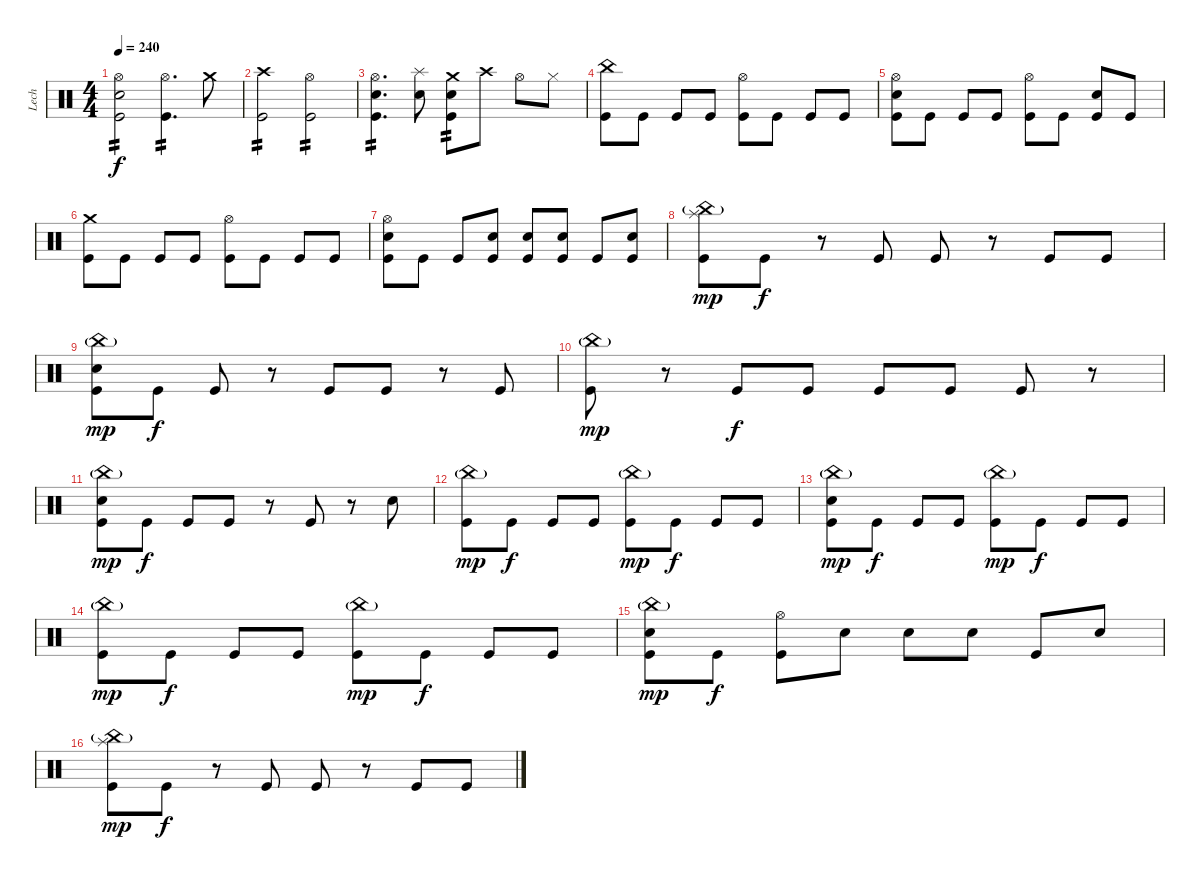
\track ("Lech" "Lech") {instrument percussion}
\staff {score}
\articulation defaults
\ts (4 4)
\tempo 240
\clef neutral
\ks c
("Hi-Hat (open)" "Snare (hit) 2" "Kick (hit)").2{tp 2 dy f} ("Hi-Hat (open)" "Kick (hit)").4{d tp 2} "Crash medium (hit)".8 |
("Crash high (hit)" "Kick (hit)").2{tp 2} ("Hi-Hat (open)" "Kick (hit)").2{tp 2} |
("Hi-Hat (open)" "Snare (hit) 2" "Kick (hit)").4{d tp 2} ("Splash (hit)" "Snare (hit) 2").8 ("Crash medium (hit)" "Snare (hit) 2" "Kick (hit)").8{tp 2} "Crash high (hit)".8 "Hi-Hat (open)".8 "Hi-Hat (closed)".8 |
("China (hit)" "Kick (hit)").8 "Kick (hit)".8 "Kick (hit)".8 "Kick (hit)".8 ("Hi-Hat (open)" "Kick (hit)").8 "Kick (hit)".8 "Kick (hit)".8 "Kick (hit)".8 |
("Hi-Hat (open)" "Snare (hit) 2" "Kick (hit)").8 "Kick (hit)".8 "Kick (hit)".8 "Kick (hit)".8 ("Hi-Hat (open)" "Kick (hit)").8 "Kick (hit)".8 ("Snare (hit) 2" "Kick (hit)").8 "Kick (hit)".8 |
("Crash medium (hit)" "Kick (hit)").8 "Kick (hit)".8 "Kick (hit)".8 "Kick (hit)".8 ("Hi-Hat (open)" "Kick (hit)").8 "Kick (hit)".8 "Kick (hit)".8 "Kick (hit)".8 |
("Hi-Hat (open)" "Snare (hit) 2" "Kick (hit)").8 "Kick (hit)".8 "Kick (hit)".8 ("Snare (hit) 2" "Kick (hit)").8 ("Snare (hit) 2" "Kick (hit)").8 ("Snare (hit) 2" "Kick (hit)").8 "Kick (hit)".8 ("Snare (hit) 2" "Kick (hit)").8 |
("Splash (hit)" "China (hit)"{g} "Kick (hit)").8{dy mp} "Kick (hit)".8{dy f} r.8 "Kick (hit)".8 "Kick (hit)".8 r.8 "Kick (hit)".8 "Kick (hit)".8 |
("China (hit)"{g} "Snare (hit) 2" "Kick (hit)").8{dy mp} "Kick (hit)".8{dy f} "Kick (hit)".8 r.8 "Kick (hit)".8 "Kick (hit)".8 r.8 "Kick (hit)".8 |
("China (hit)"{g} "Kick (hit)").8{dy mp} r.8 "Kick (hit)".8{dy f} "Kick (hit)".8 "Kick (hit)".8 "Kick (hit)".8 "Kick (hit)".8 r.8 |
("China (hit)"{g} "Snare (hit) 2" "Kick (hit)").8{dy mp} "Kick (hit)".8{dy f} "Kick (hit)".8 "Kick (hit)".8 r.8 "Kick (hit)".8 r.8 "Snare (hit) 2".8 |
("China (hit)"{g} "Kick (hit)").8{dy mp} "Kick (hit)".8{dy f} "Kick (hit)".8 "Kick (hit)".8 ("China (hit)"{g} "Kick (hit)").8{dy mp} "Kick (hit)".8{dy f} "Kick (hit)".8 "Kick (hit)".8 |
("China (hit)"{g} "Snare (hit) 2" "Kick (hit)").8{dy mp} "Kick (hit)".8{dy f} "Kick (hit)".8 "Kick (hit)".8 ("China (hit)"{g} "Kick (hit)").8{dy mp} "Kick (hit)".8{dy f} "Kick (hit)".8 "Kick (hit)".8 |
("China (hit)"{g} "Kick (hit)").8{dy mp} "Kick (hit)".8{dy f} "Kick (hit)".8 "Kick (hit)".8 ("China (hit)"{g} "Kick (hit)").8{dy mp} "Kick (hit)".8{dy f} "Kick (hit)".8 "Kick (hit)".8 |
("China (hit)"{g} "Snare (hit) 2" "Kick (hit)").8{dy mp} "Kick (hit)".8{dy f} ("Hi-Hat (open)" "Kick (hit)").8 "Snare (hit) 2".8 "Snare (hit) 2".8 "Snare (hit) 2".8 "Kick (hit)".8 "Snare (hit) 2".8 |
("Splash (hit)" "China (hit)"{g} "Kick (hit)").8{dy mp} "Kick (hit)".8{dy f} r.8 "Kick (hit)".8 "Kick (hit)".8 r.8 "Kick (hit)".8 "Kick (hit)".8
